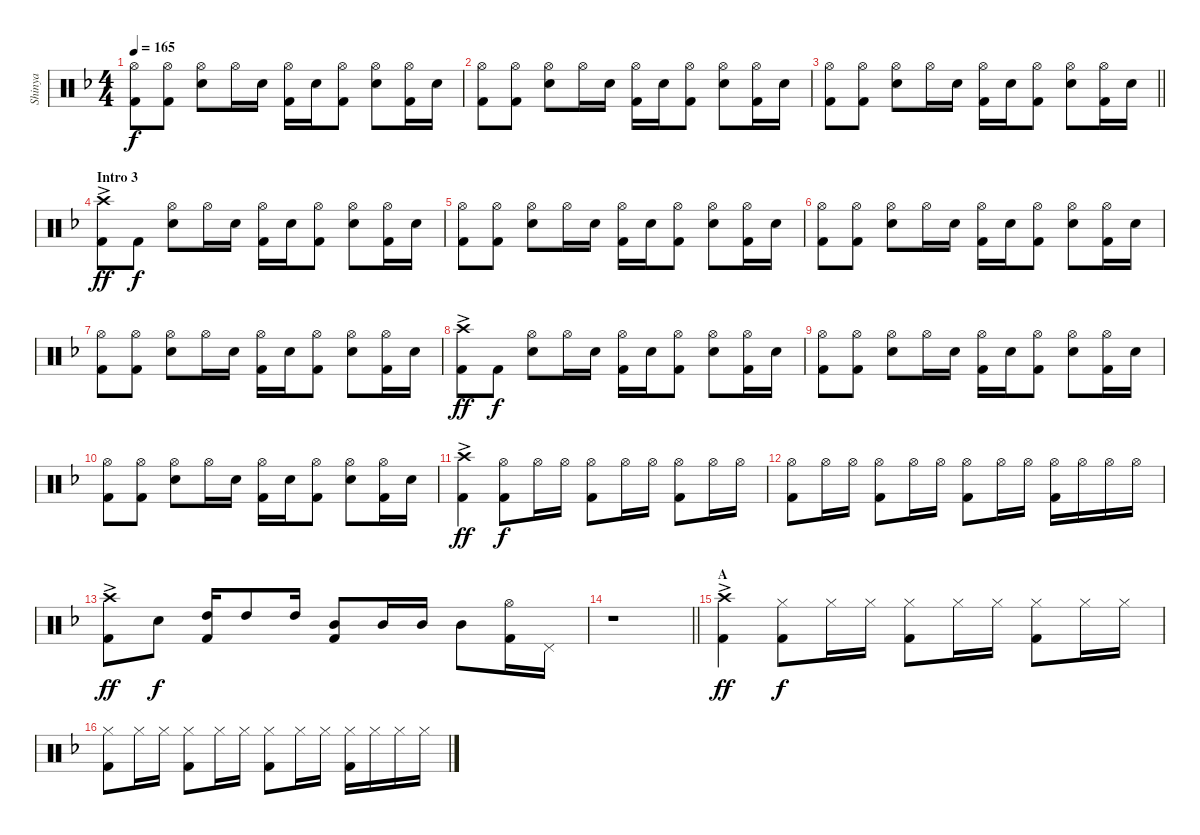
\track ("Shinya" "Shinya") {instrument percussion}
\staff {score}
\articulation defaults
\ts (4 4)
\tempo 165
\clef neutral
\ks dminor
("Hi-Hat (open)" "Kick (hit) 2").8{dy f} ("Hi-Hat (open)" "Kick (hit) 2").8 ("Hi-Hat (open)" "Snare (hit) 2").8 "Hi-Hat (open)".16 "Snare (hit) 2".16 ("Hi-Hat (open)" "Kick (hit) 2").16 "Snare (hit) 2".16 ("Hi-Hat (open)" "Kick (hit) 2").8 ("Hi-Hat (open)" "Snare (hit) 2").8 ("Hi-Hat (open)" "Kick (hit) 2").16 "Snare (hit) 2".16 |
("Hi-Hat (open)" "Kick (hit) 2").8 ("Hi-Hat (open)" "Kick (hit) 2").8 ("Hi-Hat (open)" "Snare (hit) 2").8 "Hi-Hat (open)".16 "Snare (hit) 2".16 ("Hi-Hat (open)" "Kick (hit) 2").16 "Snare (hit) 2".16 ("Hi-Hat (open)" "Kick (hit) 2").8 ("Hi-Hat (open)" "Snare (hit) 2").8 ("Hi-Hat (open)" "Kick (hit) 2").16 "Snare (hit) 2".16 |
\barLineRight lightlight
("Hi-Hat (open)" "Kick (hit) 2").8 ("Hi-Hat (open)" "Kick (hit) 2").8 ("Hi-Hat (open)" "Snare (hit) 2").8 "Hi-Hat (open)".16 "Snare (hit) 2".16 ("Hi-Hat (open)" "Kick (hit) 2").16 "Snare (hit) 2".16 ("Hi-Hat (open)" "Kick (hit) 2").8 ("Hi-Hat (open)" "Snare (hit) 2").8 ("Hi-Hat (open)" "Kick (hit) 2").16 "Snare (hit) 2".16 |
\section ("" "Intro 3")
("Crash high (hit)"{ac} "Kick (hit) 2").8{dy ff} "Kick (hit) 2".8{dy f} ("Hi-Hat (open)" "Snare (hit) 2").8 "Hi-Hat (open)".16 "Snare (hit) 2".16 ("Hi-Hat (open)" "Kick (hit) 2").16 "Snare (hit) 2".16 ("Hi-Hat (open)" "Kick (hit) 2").8 ("Hi-Hat (open)" "Snare (hit) 2").8 ("Hi-Hat (open)" "Kick (hit) 2").16 "Snare (hit) 2".16 |
("Hi-Hat (open)" "Kick (hit) 2").8 ("Hi-Hat (open)" "Kick (hit) 2").8 ("Hi-Hat (open)" "Snare (hit) 2").8 "Hi-Hat (open)".16 "Snare (hit) 2".16 ("Hi-Hat (open)" "Kick (hit) 2").16 "Snare (hit) 2".16 ("Hi-Hat (open)" "Kick (hit) 2").8 ("Hi-Hat (open)" "Snare (hit) 2").8 ("Hi-Hat (open)" "Kick (hit) 2").16 "Snare (hit) 2".16 |
("Hi-Hat (open)" "Kick (hit) 2").8 ("Hi-Hat (open)" "Kick (hit) 2").8 ("Hi-Hat (open)" "Snare (hit) 2").8 "Hi-Hat (open)".16 "Snare (hit) 2".16 ("Hi-Hat (open)" "Kick (hit) 2").16 "Snare (hit) 2".16 ("Hi-Hat (open)" "Kick (hit) 2").8 ("Hi-Hat (open)" "Snare (hit) 2").8 ("Hi-Hat (open)" "Kick (hit) 2").16 "Snare (hit) 2".16 |
("Hi-Hat (open)" "Kick (hit) 2").8 ("Hi-Hat (open)" "Kick (hit) 2").8 ("Hi-Hat (open)" "Snare (hit) 2").8 "Hi-Hat (open)".16 "Snare (hit) 2".16 ("Hi-Hat (open)" "Kick (hit) 2").16 "Snare (hit) 2".16 ("Hi-Hat (open)" "Kick (hit) 2").8 ("Hi-Hat (open)" "Snare (hit) 2").8 ("Hi-Hat (open)" "Kick (hit) 2").16 "Snare (hit) 2".16 |
("Crash high (hit)"{ac} "Kick (hit) 2").8{dy ff} "Kick (hit) 2".8{dy f} ("Hi-Hat (open)" "Snare (hit) 2").8 "Hi-Hat (open)".16 "Snare (hit) 2".16 ("Hi-Hat (open)" "Kick (hit) 2").16 "Snare (hit) 2".16 ("Hi-Hat (open)" "Kick (hit) 2").8 ("Hi-Hat (open)" "Snare (hit) 2").8 ("Hi-Hat (open)" "Kick (hit) 2").16 "Snare (hit) 2".16 |
("Hi-Hat (open)" "Kick (hit) 2").8 ("Hi-Hat (open)" "Kick (hit) 2").8 ("Hi-Hat (open)" "Snare (hit) 2").8 "Hi-Hat (open)".16 "Snare (hit) 2".16 ("Hi-Hat (open)" "Kick (hit) 2").16 "Snare (hit) 2".16 ("Hi-Hat (open)" "Kick (hit) 2").8 ("Hi-Hat (open)" "Snare (hit) 2").8 ("Hi-Hat (open)" "Kick (hit) 2").16 "Snare (hit) 2".16 |
("Hi-Hat (open)" "Kick (hit) 2").8 ("Hi-Hat (open)" "Kick (hit) 2").8 ("Hi-Hat (open)" "Snare (hit) 2").8 "Hi-Hat (open)".16 "Snare (hit) 2".16 ("Hi-Hat (open)" "Kick (hit) 2").16 "Snare (hit) 2".16 ("Hi-Hat (open)" "Kick (hit) 2").8 ("Hi-Hat (open)" "Snare (hit) 2").8 ("Hi-Hat (open)" "Kick (hit) 2").16 "Snare (hit) 2".16 |
("Crash high (hit)"{ac} "Kick (hit) 2").4{dy ff} ("Hi-Hat (open)" "Kick (hit) 2").8{dy f} "Hi-Hat (open)".16 "Hi-Hat (open)".16 ("Hi-Hat (open)" "Kick (hit) 2").8 "Hi-Hat (open)".16 "Hi-Hat (open)".16 ("Hi-Hat (open)" "Kick (hit) 2").8 "Hi-Hat (open)".16 "Hi-Hat (open)".16 |
("Hi-Hat (open)" "Kick (hit) 2").8 "Hi-Hat (open)".16 "Hi-Hat (open)".16 ("Hi-Hat (open)" "Kick (hit) 2").8 "Hi-Hat (open)".16 "Hi-Hat (open)".16 ("Hi-Hat (open)" "Kick (hit) 2").8 "Hi-Hat (open)".16 "Hi-Hat (open)".16 ("Hi-Hat (open)" "Kick (hit) 2").16 "Hi-Hat (open)".16 "Hi-Hat (open)".16 "Hi-Hat (open)".16 |
("Crash high (hit)"{ac} "Kick (hit) 2").8{dy ff} "Snare (hit) 2".8{dy f} ("High Tom (hit)" "Kick (hit) 2").16 "High Tom (hit)".8 "High Tom (hit)".16 ("Mid Tom (hit)" "Kick (hit) 2").8 "Mid Tom (hit)".16 "Mid Tom (hit)".16 "Mid Tom (hit)".8 ("Hi-Hat (open)" "Kick (hit) 2").16 "Pedal Hi-Hat (hit)".16 |
\barLineRight lightlight
r.1 |
\section ("" "A")
("Crash high (hit)"{ac} "Kick (hit) 2").4{dy ff} ("Hi-Hat (closed)" "Kick (hit) 2").8{dy f} "Hi-Hat (closed)".16 "Hi-Hat (closed)".16 ("Hi-Hat (closed)" "Kick (hit) 2").8 "Hi-Hat (closed)".16 "Hi-Hat (closed)".16 ("Hi-Hat (closed)" "Kick (hit) 2").8 "Hi-Hat (closed)".16 "Hi-Hat (closed)".16 |
("Hi-Hat (closed)" "Kick (hit) 2").8 "Hi-Hat (closed)".16 "Hi-Hat (closed)".16 ("Hi-Hat (closed)" "Kick (hit) 2").8 "Hi-Hat (closed)".16 "Hi-Hat (closed)".16 ("Hi-Hat (closed)" "Kick (hit) 2").8 "Hi-Hat (closed)".16 "Hi-Hat (closed)".16 ("Hi-Hat (closed)" "Kick (hit) 2").16 "Hi-Hat (closed)".16 "Hi-Hat (closed)".16 "Hi-Hat (closed)".16
